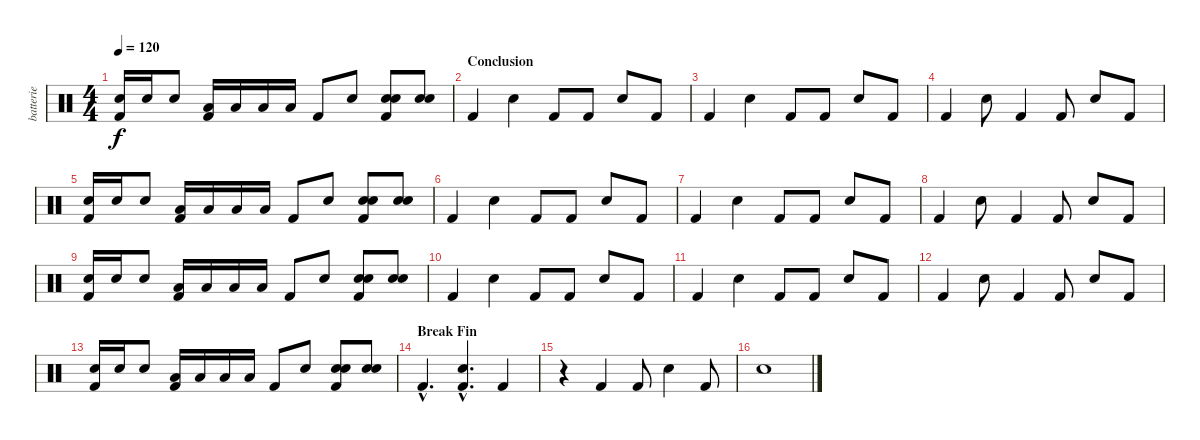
\track ("batterie" "batterie") {instrument percussion}
\staff {score}
\articulation defaults
\ts (4 4)
\tempo 120
\clef neutral
\ks c
("Kick (hit) 2" "Electric Snare (hit)").16{dy f} "Electric Snare (hit)".16 "Electric Snare (hit)".8 ("Kick (hit) 2" "Low Tom (hit)").16 "Low Tom (hit)".16 "Low Tom (hit)".16 "Low Tom (hit)".16 "Kick (hit) 2".8 "Electric Snare (hit)".8 ("Kick (hit) 2" "Electric Snare (hit)" "Electric Snare (hit)").8 ("Electric Snare (hit)" "Electric Snare (hit)").8 |
\section ("" "Conclusion")
"Kick (hit) 2".4 "Electric Snare (hit)".4 "Kick (hit) 2".8 "Kick (hit) 2".8 "Electric Snare (hit)".8 "Kick (hit) 2".8 |
"Kick (hit) 2".4 "Electric Snare (hit)".4 "Kick (hit) 2".8 "Kick (hit) 2".8 "Electric Snare (hit)".8 "Kick (hit) 2".8 |
"Kick (hit) 2".4 "Electric Snare (hit)".8 "Kick (hit) 2".4 "Kick (hit) 2".8 "Electric Snare (hit)".8 "Kick (hit) 2".8 |
("Kick (hit) 2" "Electric Snare (hit)").16 "Electric Snare (hit)".16 "Electric Snare (hit)".8 ("Kick (hit) 2" "Low Tom (hit)").16 "Low Tom (hit)".16 "Low Tom (hit)".16 "Low Tom (hit)".16 "Kick (hit) 2".8 "Electric Snare (hit)".8 ("Kick (hit) 2" "Electric Snare (hit)" "Electric Snare (hit)").8 ("Electric Snare (hit)" "Electric Snare (hit)").8 |
"Kick (hit) 2".4 "Electric Snare (hit)".4 "Kick (hit) 2".8 "Kick (hit) 2".8 "Electric Snare (hit)".8 "Kick (hit) 2".8 |
"Kick (hit) 2".4 "Electric Snare (hit)".4 "Kick (hit) 2".8 "Kick (hit) 2".8 "Electric Snare (hit)".8 "Kick (hit) 2".8 |
"Kick (hit) 2".4 "Electric Snare (hit)".8 "Kick (hit) 2".4 "Kick (hit) 2".8 "Electric Snare (hit)".8 "Kick (hit) 2".8 |
("Kick (hit) 2" "Electric Snare (hit)").16 "Electric Snare (hit)".16 "Electric Snare (hit)".8 ("Kick (hit) 2" "Low Tom (hit)").16 "Low Tom (hit)".16 "Low Tom (hit)".16 "Low Tom (hit)".16 "Kick (hit) 2".8 "Electric Snare (hit)".8 ("Kick (hit) 2" "Electric Snare (hit)" "Electric Snare (hit)").8 ("Electric Snare (hit)" "Electric Snare (hit)").8 |
"Kick (hit) 2".4 "Electric Snare (hit)".4 "Kick (hit) 2".8 "Kick (hit) 2".8 "Electric Snare (hit)".8 "Kick (hit) 2".8 |
"Kick (hit) 2".4 "Electric Snare (hit)".4 "Kick (hit) 2".8 "Kick (hit) 2".8 "Electric Snare (hit)".8 "Kick (hit) 2".8 |
"Kick (hit) 2".4 "Electric Snare (hit)".8 "Kick (hit) 2".4 "Kick (hit) 2".8 "Electric Snare (hit)".8 "Kick (hit) 2".8 |
("Kick (hit) 2" "Electric Snare (hit)").16 "Electric Snare (hit)".16 "Electric Snare (hit)".8 ("Kick (hit) 2" "Low Tom (hit)").16 "Low Tom (hit)".16 "Low Tom (hit)".16 "Low Tom (hit)".16 "Kick (hit) 2".8 "Electric Snare (hit)".8 ("Kick (hit) 2" "Electric Snare (hit)" "Electric Snare (hit)").8 ("Electric Snare (hit)" "Electric Snare (hit)").8 |
\section ("" "Break Fin")
"Kick (hit) 2"{hac}.4{d} ("Kick (hit) 2"{hac} "Electric Snare (hit)"{hac}).4{d} "Kick (hit) 2".4 |
r.4 "Kick (hit) 2".4 "Kick (hit) 2".8 "Electric Snare (hit)".4 "Kick (hit) 2".8 |
"Electric Snare (hit)".1
